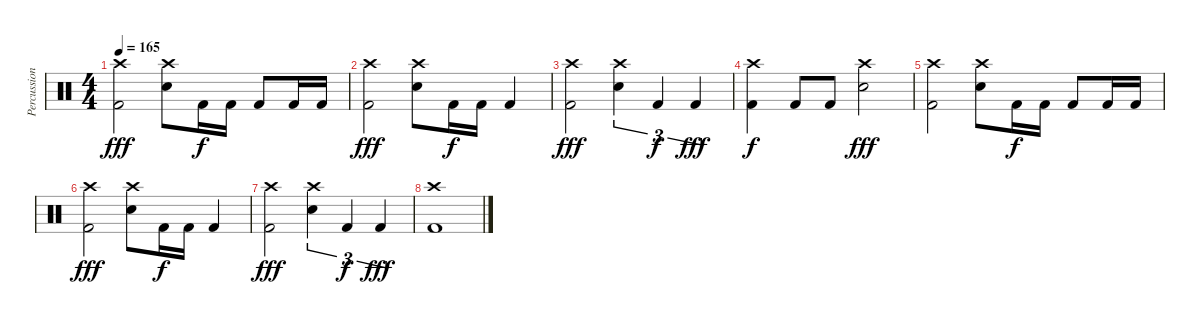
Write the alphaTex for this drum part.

\track ("Percussion" "Percussion") {instrument percussion}
\staff {score}
\articulation defaults
\ts (4 4)
\tempo 165
\clef neutral
\ks c
("Crash high (hit)" "Kick (hit) 2").2{dy fff} ("Crash high (hit)" "Electric Snare (hit)").8 "Kick (hit) 2".16{dy f} "Kick (hit) 2".16 "Kick (hit) 2".8 "Kick (hit) 2".16 "Kick (hit) 2".16 |
("Crash high (hit)" "Kick (hit) 2").2{dy fff} ("Crash high (hit)" "Electric Snare (hit)").8 "Kick (hit) 2".16{dy f} "Kick (hit) 2".16 "Kick (hit) 2".4 |
("Crash high (hit)" "Kick (hit) 2").2{dy fff} ("Crash high (hit)" "Electric Snare (hit)").4{tu (3 2)} "Kick (hit) 2".4{tu (3 2) dy f} "Kick (hit) 2".4{tu (3 2) dy fff} |
("Crash high (hit)" "Kick (hit) 2").4{dy f} "Kick (hit) 2".8 "Kick (hit) 2".8 ("Crash high (hit)" "Electric Snare (hit)").2{dy fff} |
("Crash high (hit)" "Kick (hit) 2").2 ("Crash high (hit)" "Electric Snare (hit)").8 "Kick (hit) 2".16{dy f} "Kick (hit) 2".16 "Kick (hit) 2".8 "Kick (hit) 2".16 "Kick (hit) 2".16 |
("Crash high (hit)" "Kick (hit) 2").2{dy fff} ("Crash high (hit)" "Electric Snare (hit)").8 "Kick (hit) 2".16{dy f} "Kick (hit) 2".16 "Kick (hit) 2".4 |
("Crash high (hit)" "Kick (hit) 2").2{dy fff} ("Crash high (hit)" "Electric Snare (hit)").4{tu (3 2)} "Kick (hit) 2".4{tu (3 2) dy f} "Kick (hit) 2".4{tu (3 2) dy fff} |
("Crash high (hit)" "Kick (hit) 2").1
